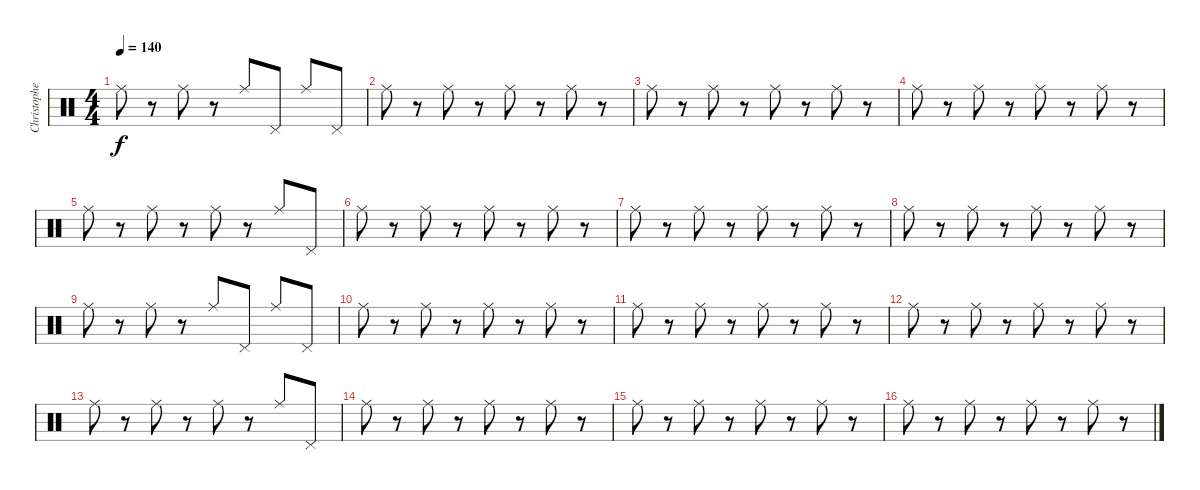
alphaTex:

\track ("Christopher - Drums" "Christophe") {instrument percussion}
\staff {score}
\articulation defaults
\ts (4 4)
\tempo 140
\clef neutral
\ks c "Ride (middle)".8{dy f}
r.8 "Ride (middle)".8 r.8 "Ride (middle)".8 "Pedal Hi-Hat (hit)".8 "Ride (middle)".8 "Pedal Hi-Hat (hit)".8 |
"Ride (middle)".8 r.8 "Ride (middle)".8 r.8 "Ride (middle)".8 r.8 "Ride (middle)".8 r.8 |
"Ride (middle)".8 r.8 "Ride (middle)".8 r.8 "Ride (middle)".8 r.8 "Ride (middle)".8 r.8 |
"Ride (middle)".8 r.8 "Ride (middle)".8 r.8 "Ride (middle)".8 r.8 "Ride (middle)".8 r.8 |
"Ride (middle)".8 r.8 "Ride (middle)".8 r.8 "Ride (middle)".8 r.8 "Ride (middle)".8 "Pedal Hi-Hat (hit)".8 |
"Ride (middle)".8 r.8 "Ride (middle)".8 r.8 "Ride (middle)".8 r.8 "Ride (middle)".8 r.8 |
"Ride (middle)".8 r.8 "Ride (middle)".8 r.8 "Ride (middle)".8 r.8 "Ride (middle)".8 r.8 |
"Ride (middle)".8 r.8 "Ride (middle)".8 r.8 "Ride (middle)".8 r.8 "Ride (middle)".8 r.8 |
"Ride (middle)".8 r.8 "Ride (middle)".8 r.8 "Ride (middle)".8 "Pedal Hi-Hat (hit)".8 "Ride (middle)".8 "Pedal Hi-Hat (hit)".8 |
"Ride (middle)".8 r.8 "Ride (middle)".8 r.8 "Ride (middle)".8 r.8 "Ride (middle)".8 r.8 |
"Ride (middle)".8 r.8 "Ride (middle)".8 r.8 "Ride (middle)".8 r.8 "Ride (middle)".8 r.8 |
"Ride (middle)".8 r.8 "Ride (middle)".8 r.8 "Ride (middle)".8 r.8 "Ride (middle)".8 r.8 |
"Ride (middle)".8 r.8 "Ride (middle)".8 r.8 "Ride (middle)".8 r.8 "Ride (middle)".8 "Pedal Hi-Hat (hit)".8 |
"Ride (middle)".8 r.8 "Ride (middle)".8 r.8 "Ride (middle)".8 r.8 "Ride (middle)".8 r.8 |
"Ride (middle)".8 r.8 "Ride (middle)".8 r.8 "Ride (middle)".8 r.8 "Ride (middle)".8 r.8 |
"Ride (middle)".8 r.8 "Ride (middle)".8 r.8 "Ride (middle)".8 r.8 "Ride (middle)".8 r.8
